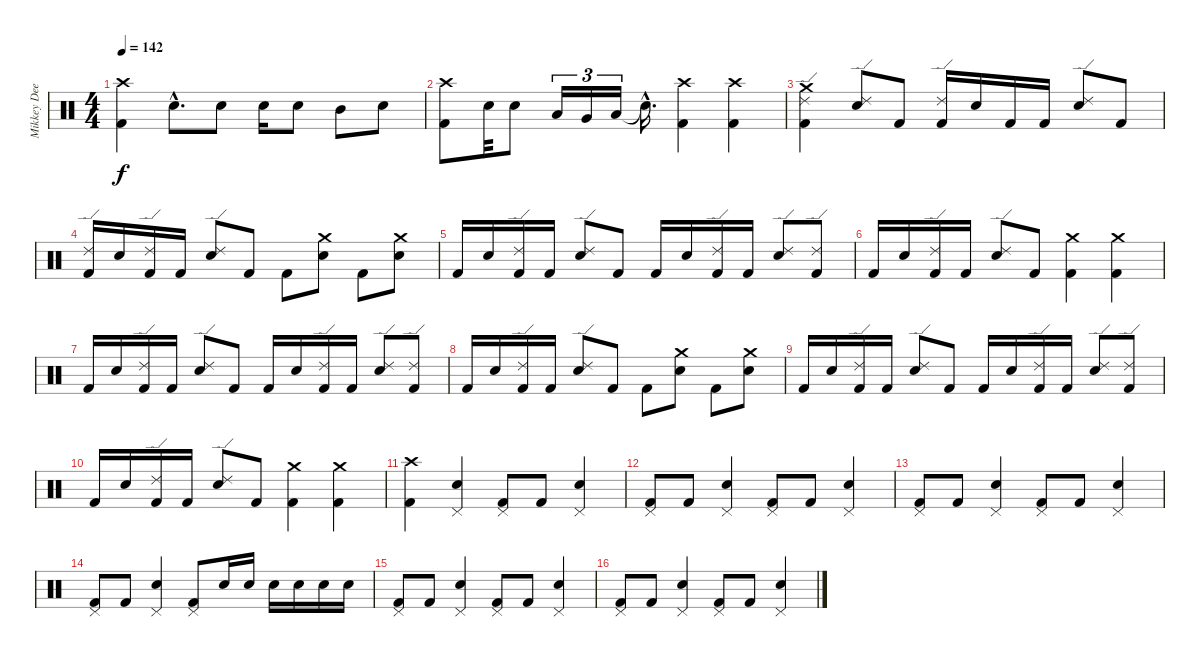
\track ("Mikkey Dee" "Mikkey Dee") {instrument percussion}
\staff {score}
\articulation defaults
\ts (4 4)
\tempo 142
\clef neutral
\ks c
("Kick (hit) 2" "Crash high (hit)").4{dy f} "Snare (hit) 2"{hac}.8{d} "Snare (hit) 2".8 "Snare (hit) 2".16 "Snare (hit) 2".8 "Mid Tom (hit)".8 "Snare (hit) 2".8 |
("Kick (hit) 2" "Crash high (hit)").8 "Snare (hit) 2".32 "Snare (hit) 2".8 "Low Tom (hit)".16{tu (3 2)} "Very Low Tom (hit)".16{tu (3 2)} "Low Floor Tom (hit)".16{tu (3 2)} "Snare (hit)"{hac t}.16{d} ("Kick (hit) 2" "Crash high (hit)").4 ("Kick (hit) 2" "Crash high (hit)").4 |
("Kick (hit) 2" "Ride (edge) 2" "Crash medium (hit)").4 ("Ride (edge) 2" "Snare (hit) 2").8 "Kick (hit) 2".8 ("Kick (hit) 2" "Ride (edge) 2").16 "Snare (hit) 2".16 "Kick (hit) 2".16 "Kick (hit) 2".16 ("Ride (edge) 2" "Snare (hit) 2").8 "Kick (hit) 2".8 |
("Kick (hit) 2" "Ride (edge) 2").16 "Snare (hit) 2".16 ("Kick (hit) 2" "Ride (edge) 2").16 "Kick (hit) 2".16 ("Ride (edge) 2" "Snare (hit) 2").8 "Kick (hit) 2".8 "Kick (hit) 2".8 ("Crash medium (hit)" "Snare (hit) 2").8 "Kick (hit) 2".8 ("Crash medium (hit)" "Snare (hit) 2").8 |
"Kick (hit) 2".16 "Snare (hit) 2".16 ("Kick (hit) 2" "Ride (edge) 2").16 "Kick (hit) 2".16 ("Ride (edge) 2" "Snare (hit) 2").8 "Kick (hit) 2".8 "Kick (hit) 2".16 "Snare (hit) 2".16 ("Kick (hit) 2" "Ride (edge) 2").16 "Kick (hit) 2".16 ("Ride (edge) 2" "Snare (hit) 2").8 ("Kick (hit) 2" "Ride (edge) 2").8 |
"Kick (hit) 2".16 "Snare (hit) 2".16 ("Kick (hit) 2" "Ride (edge) 2").16 "Kick (hit) 2".16 ("Ride (edge) 2" "Snare (hit) 2").8 "Kick (hit) 2".8 ("Kick (hit) 2" "Crash medium (hit)").4 ("Kick (hit) 2" "Crash medium (hit)").4 |
"Kick (hit) 2".16 "Snare (hit) 2".16 ("Kick (hit) 2" "Ride (edge) 2").16 "Kick (hit) 2".16 ("Ride (edge) 2" "Snare (hit) 2").8 "Kick (hit) 2".8 "Kick (hit) 2".16 "Snare (hit) 2".16 ("Kick (hit) 2" "Ride (edge) 2").16 "Kick (hit) 2".16 ("Ride (edge) 2" "Snare (hit) 2").8 ("Kick (hit) 2" "Ride (edge) 2").8 |
"Kick (hit) 2".16 "Snare (hit) 2".16 ("Kick (hit) 2" "Ride (edge) 2").16 "Kick (hit) 2".16 ("Ride (edge) 2" "Snare (hit) 2").8 "Kick (hit) 2".8 "Kick (hit) 2".8 ("Crash medium (hit)" "Snare (hit) 2").8 "Kick (hit) 2".8 ("Crash medium (hit)" "Snare (hit) 2").8 |
"Kick (hit) 2".16 "Snare (hit) 2".16 ("Kick (hit) 2" "Ride (edge) 2").16 "Kick (hit) 2".16 ("Ride (edge) 2" "Snare (hit) 2").8 "Kick (hit) 2".8 "Kick (hit) 2".16 "Snare (hit) 2".16 ("Kick (hit) 2" "Ride (edge) 2").16 "Kick (hit) 2".16 ("Ride (edge) 2" "Snare (hit) 2").8 ("Kick (hit) 2" "Ride (edge) 2").8 |
"Kick (hit) 2".16 "Snare (hit) 2".16 ("Kick (hit) 2" "Ride (edge) 2").16 "Kick (hit) 2".16 ("Ride (edge) 2" "Snare (hit) 2").8 "Kick (hit) 2".8 ("Kick (hit) 2" "Crash medium (hit)").4 ("Kick (hit) 2" "Crash medium (hit)").4 |
("Kick (hit) 2" "Crash high (hit)").4 ("Pedal Hi-Hat (hit)" "Snare (hit) 2").4 ("Kick (hit) 2" "Pedal Hi-Hat (hit)").8 "Kick (hit) 2".8 ("Pedal Hi-Hat (hit)" "Snare (hit) 2").4 |
("Kick (hit) 2" "Pedal Hi-Hat (hit)").8 "Kick (hit) 2".8 ("Pedal Hi-Hat (hit)" "Snare (hit) 2").4 ("Kick (hit) 2" "Pedal Hi-Hat (hit)").8 "Kick (hit) 2".8 ("Pedal Hi-Hat (hit)" "Snare (hit) 2").4 |
("Kick (hit) 2" "Pedal Hi-Hat (hit)").8 "Kick (hit) 2".8 ("Pedal Hi-Hat (hit)" "Snare (hit) 2").4 ("Kick (hit) 2" "Pedal Hi-Hat (hit)").8 "Kick (hit) 2".8 ("Pedal Hi-Hat (hit)" "Snare (hit) 2").4 |
("Kick (hit) 2" "Pedal Hi-Hat (hit)").8 "Kick (hit) 2".8 ("Pedal Hi-Hat (hit)" "Snare (hit) 2").4 ("Kick (hit) 2" "Pedal Hi-Hat (hit)").8 "Snare (hit) 2".16 "Snare (hit) 2".16 "Snare (hit) 2".16 "Snare (hit) 2".16 "Snare (hit) 2".16 "Snare (hit) 2".16 |
("Kick (hit) 2" "Pedal Hi-Hat (hit)").8 "Kick (hit) 2".8 ("Pedal Hi-Hat (hit)" "Snare (hit) 2").4 ("Kick (hit) 2" "Pedal Hi-Hat (hit)").8 "Kick (hit) 2".8 ("Pedal Hi-Hat (hit)" "Snare (hit) 2").4 |
("Kick (hit) 2" "Pedal Hi-Hat (hit)").8 "Kick (hit) 2".8 ("Pedal Hi-Hat (hit)" "Snare (hit) 2").4 ("Kick (hit) 2" "Pedal Hi-Hat (hit)").8 "Kick (hit) 2".8 ("Pedal Hi-Hat (hit)" "Snare (hit) 2").4
